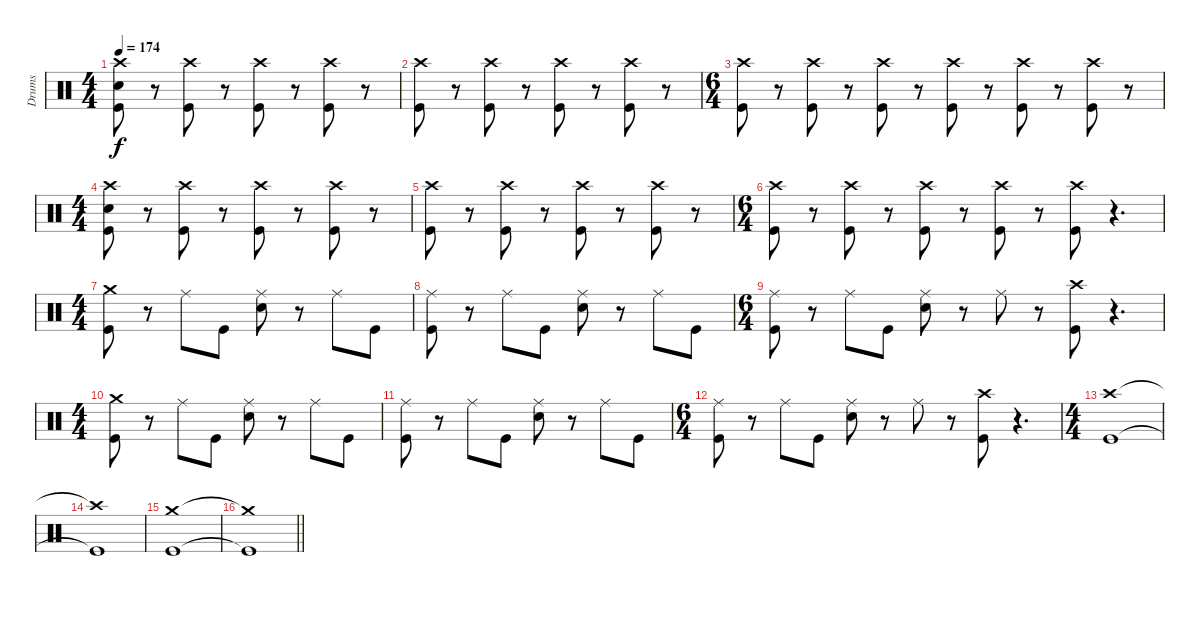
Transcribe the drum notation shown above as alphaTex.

\track ("Drums" "Drums") {instrument percussion}
\staff {score}
\articulation defaults
\ts (4 4)
\tempo 174
\clef neutral
\ks c
("Crash high (hit)" "Snare (hit) 2" "Kick (hit)").8{dy f} r.8 ("Crash high (hit)" "Kick (hit)").8 r.8 ("Crash high (hit)" "Kick (hit)").8 r.8 ("Crash high (hit)" "Kick (hit)").8 r.8 |
("Crash high (hit)" "Kick (hit)").8 r.8 ("Crash high (hit)" "Kick (hit)").8 r.8 ("Crash high (hit)" "Kick (hit)").8 r.8 ("Crash high (hit)" "Kick (hit)").8 r.8 |
\ts (6 4)
("Crash high (hit)" "Kick (hit)").8 r.8 ("Crash high (hit)" "Kick (hit)").8 r.8 ("Crash high (hit)" "Kick (hit)").8 r.8 ("Crash high (hit)" "Kick (hit)").8 r.8 ("Crash high (hit)" "Kick (hit)").8 r.8 ("Crash high (hit)" "Kick (hit)").8 r.8 |
\ts (4 4)
("Crash high (hit)" "Snare (hit) 2" "Kick (hit)").8 r.8 ("Crash high (hit)" "Kick (hit)").8 r.8 ("Crash high (hit)" "Kick (hit)").8 r.8 ("Crash high (hit)" "Kick (hit)").8 r.8 |
("Crash high (hit)" "Kick (hit)").8 r.8 ("Crash high (hit)" "Kick (hit)").8 r.8 ("Crash high (hit)" "Kick (hit)").8 r.8 ("Crash high (hit)" "Kick (hit)").8 r.8 |
\ts (6 4)
("Crash high (hit)" "Kick (hit)").8 r.8 ("Crash high (hit)" "Kick (hit)").8 r.8 ("Crash high (hit)" "Kick (hit)").8 r.8 ("Crash high (hit)" "Kick (hit)").8 r.8 ("Crash high (hit)" "Kick (hit)").8 r.4{d} |
\ts (4 4)
("Crash medium (hit)" "Kick (hit)").8 r.8 "Ride (middle)".8 "Kick (hit)".8 ("Ride (middle)" "Snare (hit) 2").8 r.8 "Ride (middle)".8 "Kick (hit)".8 |
("Ride (middle)" "Kick (hit)").8 r.8 "Ride (middle)".8 "Kick (hit)".8 ("Ride (middle)" "Snare (hit) 2").8 r.8 "Ride (middle)".8 "Kick (hit)".8 |
\ts (6 4)
("Ride (middle)" "Kick (hit)").8 r.8 "Ride (middle)".8 "Kick (hit)".8 ("Ride (middle)" "Snare (hit) 2").8 r.8 "Ride (middle)".8 r.8 ("Crash high (hit)" "Kick (hit)").8 r.4{d} |
\ts (4 4)
("Crash medium (hit)" "Kick (hit)").8 r.8 "Ride (middle)".8 "Kick (hit)".8 ("Ride (middle)" "Snare (hit) 2").8 r.8 "Ride (middle)".8 "Kick (hit)".8 |
("Ride (middle)" "Kick (hit)").8 r.8 "Ride (middle)".8 "Kick (hit)".8 ("Ride (middle)" "Snare (hit) 2").8 r.8 "Ride (middle)".8 "Kick (hit)".8 |
\ts (6 4)
("Ride (middle)" "Kick (hit)").8 r.8 "Ride (middle)".8 "Kick (hit)".8 ("Ride (middle)" "Snare (hit) 2").8 r.8 "Ride (middle)".8 r.8 ("Crash high (hit)" "Kick (hit)").8 r.4{d} |
\ts (4 4)
("Crash high (hit)" "Kick (hit)").1 |
("Crash high (hit)"{t} "Kick (hit)"{t}).1 |
("Crash medium (hit)" "Kick (hit)").1 |
\barLineRight lightlight
("Crash medium (hit)"{t} "Kick (hit)"{t}).1
